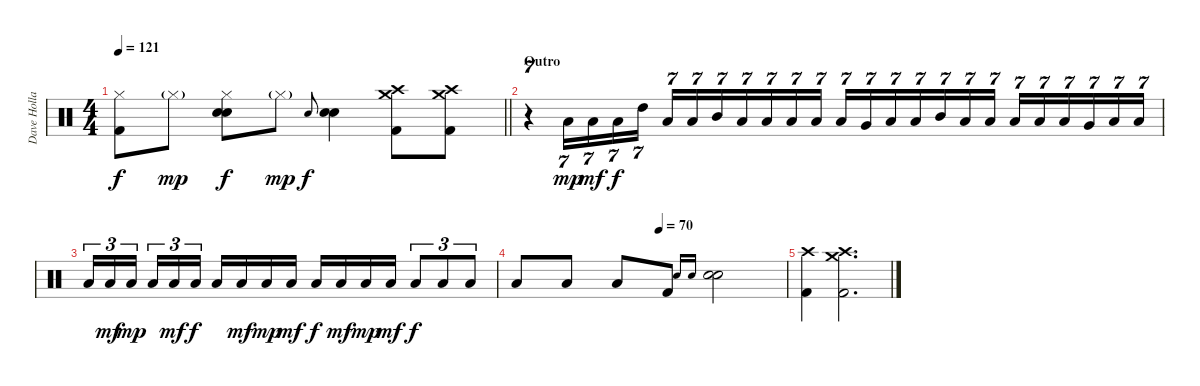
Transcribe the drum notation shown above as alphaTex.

\track ("Dave Holland" "Dave Holla") {instrument percussion}
\staff {score}
\articulation defaults
\ts (4 4)
\tempo 121
\clef neutral
\barLineRight lightlight
\ks c
("Hi-Hat (closed)" "Kick (hit) 2").8{dy f} "Hi-Hat (closed)"{g}.8{dy mp} ("Hi-Hat (closed)" "Electric Snare (hit)" "Snare (hit) 2").8{dy f} "Hi-Hat (closed)"{g}.8{dy mp} "Electric Snare (hit)".8{gr onbeat dy f} ("Electric Snare (hit)" "Snare (hit) 2").4 ("Crash medium (hit)" "Crash high (hit)" "Kick (hit) 2").8 ("Crash medium (hit)" "Crash high (hit)" "Kick (hit) 2").8 |
\section ("" "Outro")
r.4{tu (7 4)} "Low Floor Tom (hit)".16{tu (7 4) dy mp} "Low Floor Tom (hit)".16{tu (7 4) dy mf} "Low Floor Tom (hit)".16{tu (7 4) dy f} "High Tom (hit)".16{tu (7 4)} "Low Floor Tom (hit)".16{tu (7 4)} "Low Floor Tom (hit)".16{tu (7 4)} "Mid Tom (hit)".16{tu (7 4)} "Low Floor Tom (hit)".16{tu (7 4)} "Low Floor Tom (hit)".16{tu (7 4)} "Low Tom (hit)".16{tu (7 4)} "Low Floor Tom (hit)".16{tu (7 4)} "Low Floor Tom (hit)".16{tu (7 4)} "Very Low Tom (hit)".16{tu (7 4)} "Low Floor Tom (hit)".16{tu (7 4)} "Low Floor Tom (hit)".16{tu (7 4)} "Mid Tom (hit)".16{tu (7 4)} "Low Floor Tom (hit)".16{tu (7 4)} "Low Floor Tom (hit)".16{tu (7 4)} "Low Tom (hit)".16{tu (7 4)} "Low Floor Tom (hit)".16{tu (7 4)} "Low Floor Tom (hit)".16{tu (7 4)} "Very Low Tom (hit)".16{tu (7 4)} "Low Floor Tom (hit)".16{tu (7 4)} "Low Floor Tom (hit)".16{tu (7 4)} |
"Low Floor Tom (hit)".16{tu (3 2)} "Low Floor Tom (hit)".16{tu (3 2) dy mf} "Low Floor Tom (hit)".16{tu (3 2) dy mp beam splitsecondary} "Low Floor Tom (hit)".16{tu (3 2)} "Low Floor Tom (hit)".16{tu (3 2) dy mf} "Low Floor Tom (hit)".16{tu (3 2) dy f} "Low Floor Tom (hit)".16 "Low Floor Tom (hit)".16{dy mf} "Low Floor Tom (hit)".16{dy mp} "Low Floor Tom (hit)".16{dy mf} "Low Floor Tom (hit)".16{dy f} "Low Floor Tom (hit)".16{dy mf} "Low Floor Tom (hit)".16{dy mp} "Low Floor Tom (hit)".16{dy mf} "Low Floor Tom (hit)".8{tu (3 2) dy f} "Low Floor Tom (hit)".8{tu (3 2)} "Low Floor Tom (hit)".8{tu (3 2)} |
\tempo (70 0.53125)
"Low Floor Tom (hit)".8 "Low Floor Tom (hit)".8 "Low Floor Tom (hit)".8 "Kick (hit) 2".8 "Electric Snare (hit)".16{gr onbeat} "Snare (hit) 2".16{gr onbeat} ("Electric Snare (hit)" "Snare (hit) 2").2 |
("Crash high (hit)" "Kick (hit) 2").4 ("Crash medium (hit)" "Crash high (hit)" "Kick (hit) 2").2{d}
